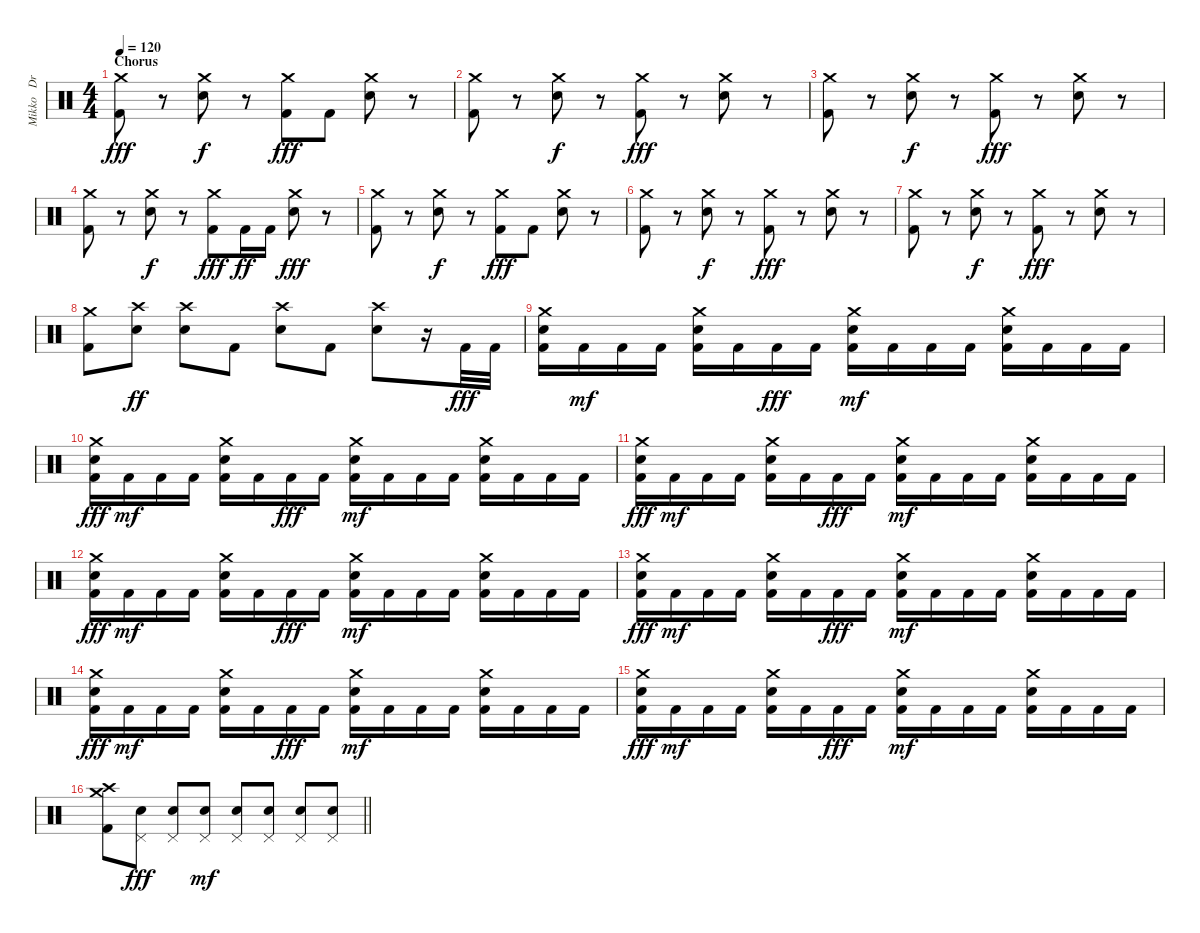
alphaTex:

\track ("Mikko   Drums" "Mikko   Dr") {instrument percussion}
\staff {score}
\articulation defaults
\ts (4 4)
\section ("" "Chorus")
\tempo 120
\clef neutral
\ks c
("Crash medium (hit)" "Kick (hit) 2").8{dy fff} r.8 ("Crash medium (hit)" "Snare (hit) 2").8{dy f} r.8 ("Crash medium (hit)" "Kick (hit) 2").8{dy fff} "Kick (hit) 2".8 ("Crash medium (hit)" "Snare (hit) 2").8 r.8 |
("Crash medium (hit)" "Kick (hit) 2").8 r.8 ("Crash medium (hit)" "Snare (hit) 2").8{dy f} r.8 ("Crash medium (hit)" "Kick (hit) 2").8{dy fff} r.8 ("Crash medium (hit)" "Snare (hit) 2").8 r.8 |
("Crash medium (hit)" "Kick (hit) 2").8 r.8 ("Crash medium (hit)" "Snare (hit) 2").8{dy f} r.8 ("Crash medium (hit)" "Kick (hit) 2").8{dy fff} r.8 ("Crash medium (hit)" "Snare (hit) 2").8 r.8 |
("Crash medium (hit)" "Kick (hit) 2").8 r.8 ("Crash medium (hit)" "Snare (hit) 2").8{dy f} r.8 ("Crash medium (hit)" "Kick (hit) 2").8{dy fff} "Kick (hit) 2".16{dy ff} "Kick (hit) 2".16 ("Crash medium (hit)" "Snare (hit) 2").8{dy fff} r.8 |
("Crash medium (hit)" "Kick (hit) 2").8 r.8 ("Crash medium (hit)" "Snare (hit) 2").8{dy f} r.8 ("Crash medium (hit)" "Kick (hit) 2").8{dy fff} "Kick (hit) 2".8 ("Crash medium (hit)" "Snare (hit) 2").8 r.8 |
("Crash medium (hit)" "Kick (hit) 2").8 r.8 ("Crash medium (hit)" "Snare (hit) 2").8{dy f} r.8 ("Crash medium (hit)" "Kick (hit) 2").8{dy fff} r.8 ("Crash medium (hit)" "Snare (hit) 2").8 r.8 |
("Crash medium (hit)" "Kick (hit) 2").8 r.8 ("Crash medium (hit)" "Snare (hit) 2").8{dy f} r.8 ("Crash medium (hit)" "Kick (hit) 2").8{dy fff} r.8 ("Crash medium (hit)" "Snare (hit) 2").8 r.8 |
("Crash medium (hit)" "Kick (hit) 2").8 ("Crash high (hit)" "Snare (hit) 2").8{dy ff} ("Crash high (hit)" "Snare (hit) 2").8 "Kick (hit) 2".8 ("Crash high (hit)" "Snare (hit) 2").8 "Kick (hit) 2".8 ("Crash high (hit)" "Snare (hit) 2").8 r.16 "Kick (hit) 2".32{dy fff} "Kick (hit) 2".32 |
("Crash medium (hit)" "Snare (hit) 2" "Kick (hit) 2").16 "Kick (hit) 2".16{dy mf} "Kick (hit) 2".16 "Kick (hit) 2".16 ("Crash medium (hit)" "Snare (hit) 2" "Kick (hit) 2").16 "Kick (hit) 2".16 "Kick (hit) 2".16{dy fff} "Kick (hit) 2".16 ("Crash medium (hit)" "Snare (hit) 2" "Kick (hit) 2").16{dy mf} "Kick (hit) 2".16 "Kick (hit) 2".16 "Kick (hit) 2".16 ("Crash medium (hit)" "Snare (hit) 2" "Kick (hit) 2").16 "Kick (hit) 2".16 "Kick (hit) 2".16 "Kick (hit) 2".16 |
("Crash medium (hit)" "Snare (hit) 2" "Kick (hit) 2").16{dy fff} "Kick (hit) 2".16{dy mf} "Kick (hit) 2".16 "Kick (hit) 2".16 ("Crash medium (hit)" "Snare (hit) 2" "Kick (hit) 2").16 "Kick (hit) 2".16 "Kick (hit) 2".16{dy fff} "Kick (hit) 2".16 ("Crash medium (hit)" "Snare (hit) 2" "Kick (hit) 2").16{dy mf} "Kick (hit) 2".16 "Kick (hit) 2".16 "Kick (hit) 2".16 ("Crash medium (hit)" "Snare (hit) 2" "Kick (hit) 2").16 "Kick (hit) 2".16 "Kick (hit) 2".16 "Kick (hit) 2".16 |
("Crash medium (hit)" "Snare (hit) 2" "Kick (hit) 2").16{dy fff} "Kick (hit) 2".16{dy mf} "Kick (hit) 2".16 "Kick (hit) 2".16 ("Crash medium (hit)" "Snare (hit) 2" "Kick (hit) 2").16 "Kick (hit) 2".16 "Kick (hit) 2".16{dy fff} "Kick (hit) 2".16 ("Crash medium (hit)" "Snare (hit) 2" "Kick (hit) 2").16{dy mf} "Kick (hit) 2".16 "Kick (hit) 2".16 "Kick (hit) 2".16 ("Crash medium (hit)" "Snare (hit) 2" "Kick (hit) 2").16 "Kick (hit) 2".16 "Kick (hit) 2".16 "Kick (hit) 2".16 |
("Crash medium (hit)" "Snare (hit) 2" "Kick (hit) 2").16{dy fff} "Kick (hit) 2".16{dy mf} "Kick (hit) 2".16 "Kick (hit) 2".16 ("Crash medium (hit)" "Snare (hit) 2" "Kick (hit) 2").16 "Kick (hit) 2".16 "Kick (hit) 2".16{dy fff} "Kick (hit) 2".16 ("Crash medium (hit)" "Snare (hit) 2" "Kick (hit) 2").16{dy mf} "Kick (hit) 2".16 "Kick (hit) 2".16 "Kick (hit) 2".16 ("Crash medium (hit)" "Snare (hit) 2" "Kick (hit) 2").16 "Kick (hit) 2".16 "Kick (hit) 2".16 "Kick (hit) 2".16 |
("Crash medium (hit)" "Snare (hit) 2" "Kick (hit) 2").16{dy fff} "Kick (hit) 2".16{dy mf} "Kick (hit) 2".16 "Kick (hit) 2".16 ("Crash medium (hit)" "Snare (hit) 2" "Kick (hit) 2").16 "Kick (hit) 2".16 "Kick (hit) 2".16{dy fff} "Kick (hit) 2".16 ("Crash medium (hit)" "Snare (hit) 2" "Kick (hit) 2").16{dy mf} "Kick (hit) 2".16 "Kick (hit) 2".16 "Kick (hit) 2".16 ("Crash medium (hit)" "Snare (hit) 2" "Kick (hit) 2").16 "Kick (hit) 2".16 "Kick (hit) 2".16 "Kick (hit) 2".16 |
("Crash medium (hit)" "Snare (hit) 2" "Kick (hit) 2").16{dy fff} "Kick (hit) 2".16{dy mf} "Kick (hit) 2".16 "Kick (hit) 2".16 ("Crash medium (hit)" "Snare (hit) 2" "Kick (hit) 2").16 "Kick (hit) 2".16 "Kick (hit) 2".16{dy fff} "Kick (hit) 2".16 ("Crash medium (hit)" "Snare (hit) 2" "Kick (hit) 2").16{dy mf} "Kick (hit) 2".16 "Kick (hit) 2".16 "Kick (hit) 2".16 ("Crash medium (hit)" "Snare (hit) 2" "Kick (hit) 2").16 "Kick (hit) 2".16 "Kick (hit) 2".16 "Kick (hit) 2".16 |
("Crash medium (hit)" "Snare (hit) 2" "Kick (hit) 2").16{dy fff} "Kick (hit) 2".16{dy mf} "Kick (hit) 2".16 "Kick (hit) 2".16 ("Crash medium (hit)" "Snare (hit) 2" "Kick (hit) 2").16 "Kick (hit) 2".16 "Kick (hit) 2".16{dy fff} "Kick (hit) 2".16 ("Crash medium (hit)" "Snare (hit) 2" "Kick (hit) 2").16{dy mf} "Kick (hit) 2".16 "Kick (hit) 2".16 "Kick (hit) 2".16 ("Crash medium (hit)" "Snare (hit) 2" "Kick (hit) 2").16 "Kick (hit) 2".16 "Kick (hit) 2".16 "Kick (hit) 2".16 |
\barLineRight lightlight
("Crash high (hit)" "Crash medium (hit)" "Kick (hit) 2").8 ("Pedal Hi-Hat (hit)" "Snare (hit) 2").8{dy fff} ("Pedal Hi-Hat (hit)" "Snare (hit) 2").8 ("Pedal Hi-Hat (hit)" "Snare (hit) 2").8{dy mf} ("Pedal Hi-Hat (hit)" "Snare (hit) 2").8 ("Pedal Hi-Hat (hit)" "Snare (hit) 2").8 ("Pedal Hi-Hat (hit)" "Snare (hit) 2").8 ("Pedal Hi-Hat (hit)" "Snare (hit) 2").8
